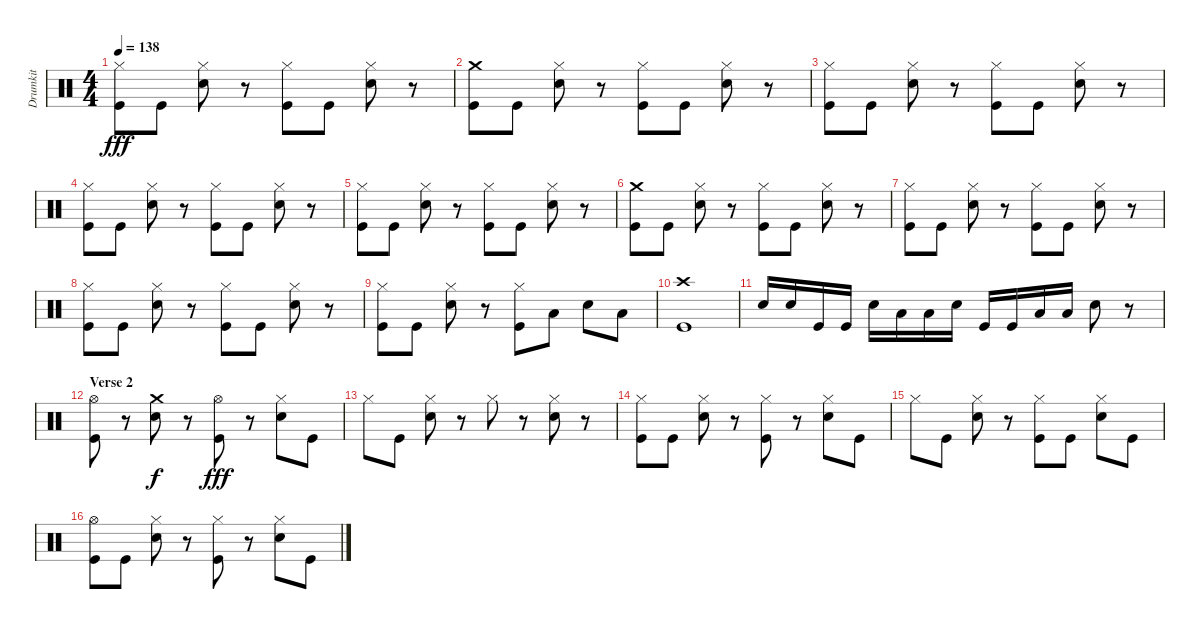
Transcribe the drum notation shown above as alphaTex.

\track ("Drumkit" "Drumkit") {instrument percussion}
\staff {score}
\articulation defaults
\ts (4 4)
\tempo 138
\clef neutral
\ks c
("Hi-Hat (closed)" "Kick (hit)").8{dy fff} "Kick (hit)".8 ("Hi-Hat (closed)" "Snare (hit) 2").8 r.8 ("Hi-Hat (closed)" "Kick (hit)").8 "Kick (hit)".8 ("Hi-Hat (closed)" "Snare (hit) 2").8 r.8 |
("Crash medium (hit)" "Kick (hit)").8 "Kick (hit)".8 ("Hi-Hat (closed)" "Snare (hit) 2").8 r.8 ("Hi-Hat (closed)" "Kick (hit)").8 "Kick (hit)".8 ("Hi-Hat (closed)" "Snare (hit) 2").8 r.8 |
("Hi-Hat (closed)" "Kick (hit)").8 "Kick (hit)".8 ("Hi-Hat (closed)" "Snare (hit) 2").8 r.8 ("Hi-Hat (closed)" "Kick (hit)").8 "Kick (hit)".8 ("Hi-Hat (closed)" "Snare (hit) 2").8 r.8 |
("Hi-Hat (closed)" "Kick (hit)").8 "Kick (hit)".8 ("Hi-Hat (closed)" "Snare (hit) 2").8 r.8 ("Hi-Hat (closed)" "Kick (hit)").8 "Kick (hit)".8 ("Hi-Hat (closed)" "Snare (hit) 2").8 r.8 |
("Hi-Hat (closed)" "Kick (hit)").8 "Kick (hit)".8 ("Hi-Hat (closed)" "Snare (hit) 2").8 r.8 ("Hi-Hat (closed)" "Kick (hit)").8 "Kick (hit)".8 ("Hi-Hat (closed)" "Snare (hit) 2").8 r.8 |
("Crash medium (hit)" "Kick (hit)").8 "Kick (hit)".8 ("Hi-Hat (closed)" "Snare (hit) 2").8 r.8 ("Hi-Hat (closed)" "Kick (hit)").8 "Kick (hit)".8 ("Hi-Hat (closed)" "Snare (hit) 2").8 r.8 |
("Hi-Hat (closed)" "Kick (hit)").8 "Kick (hit)".8 ("Hi-Hat (closed)" "Snare (hit) 2").8 r.8 ("Hi-Hat (closed)" "Kick (hit)").8 "Kick (hit)".8 ("Hi-Hat (closed)" "Snare (hit) 2").8 r.8 |
("Hi-Hat (closed)" "Kick (hit)").8 "Kick (hit)".8 ("Hi-Hat (closed)" "Snare (hit) 2").8 r.8 ("Hi-Hat (closed)" "Kick (hit)").8 "Kick (hit)".8 ("Hi-Hat (closed)" "Snare (hit) 2").8 r.8 |
("Hi-Hat (closed)" "Kick (hit)").8 "Kick (hit)".8 ("Hi-Hat (closed)" "Snare (hit) 2").8 r.8 ("Hi-Hat (closed)" "Kick (hit)").8 "Low Tom (hit)".8 "Snare (hit) 2".8 "Low Floor Tom (hit)".8 |
("Crash high (hit)" "Kick (hit)").1 |
"Snare (hit) 2".16 "Snare (hit) 2".16 "Kick (hit)".16 "Kick (hit)".16 "Snare (hit) 2".16 "Low Tom (hit)".16 "Low Floor Tom (hit)".16 "Snare (hit) 2".16 "Kick (hit)".16 "Kick (hit)".16 "Low Tom (hit)".16 "Low Floor Tom (hit)".16 "Snare (hit) 2".8 r.8 |
\section ("" "Verse 2")
("Hi-Hat (open)" "Kick (hit)").8 r.8 ("Crash medium (hit)" "Snare (hit) 2").8{dy f} r.8 ("Hi-Hat (open)" "Kick (hit)").8{dy fff} r.8 ("Hi-Hat (closed)" "Snare (hit) 2").8 "Kick (hit)".8 |
"Hi-Hat (closed)".8 "Kick (hit)".8 ("Hi-Hat (closed)" "Snare (hit) 2").8 r.8 "Hi-Hat (closed)".8 r.8 ("Hi-Hat (closed)" "Snare (hit) 2").8 r.8 |
("Hi-Hat (closed)" "Kick (hit)").8 "Kick (hit)".8 ("Hi-Hat (closed)" "Snare (hit) 2").8 r.8 ("Hi-Hat (closed)" "Kick (hit)").8 r.8 ("Hi-Hat (closed)" "Snare (hit) 2").8 "Kick (hit)".8 |
"Hi-Hat (closed)".8 "Kick (hit)".8 ("Hi-Hat (closed)" "Snare (hit) 2").8 r.8 ("Hi-Hat (closed)" "Kick (hit)").8 "Kick (hit)".8 ("Hi-Hat (closed)" "Snare (hit) 2").8 "Kick (hit)".8 |
("Hi-Hat (open)" "Kick (hit)").8 "Kick (hit)".8 ("Hi-Hat (closed)" "Snare (hit) 2").8 r.8 ("Hi-Hat (closed)" "Kick (hit)").8 r.8 ("Hi-Hat (closed)" "Snare (hit) 2").8 "Kick (hit)".8
